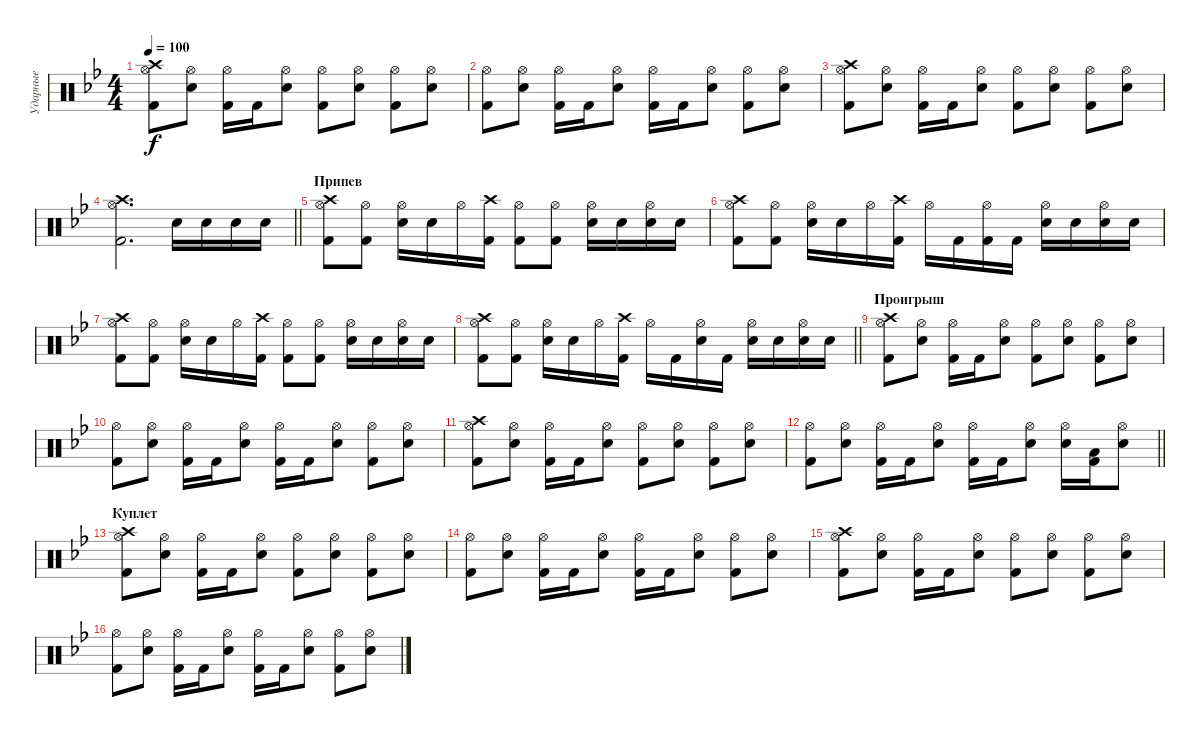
\track ("Ударные" "Ударные") {instrument percussion}
\staff {score}
\articulation defaults
\ts (4 4)
\tempo 100
\clef neutral
\ks gminor
("Crash high (hit)" "Hi-Hat (open)" "Kick (hit) 2").8{dy f} ("Hi-Hat (open)" "Electric Snare (hit)").8 ("Hi-Hat (open)" "Kick (hit) 2").16 "Kick (hit) 2".16 ("Hi-Hat (open)" "Electric Snare (hit)").8 ("Hi-Hat (open)" "Kick (hit) 2").8 ("Hi-Hat (open)" "Electric Snare (hit)").8 ("Hi-Hat (open)" "Kick (hit) 2").8 ("Hi-Hat (open)" "Electric Snare (hit)").8 |
("Hi-Hat (open)" "Kick (hit) 2").8 ("Hi-Hat (open)" "Electric Snare (hit)").8 ("Hi-Hat (open)" "Kick (hit) 2").16 "Kick (hit) 2".16 ("Hi-Hat (open)" "Electric Snare (hit)").8 ("Hi-Hat (open)" "Kick (hit) 2").16 "Kick (hit) 2".16 ("Hi-Hat (open)" "Electric Snare (hit)").8 ("Hi-Hat (open)" "Kick (hit) 2").8 ("Hi-Hat (open)" "Electric Snare (hit)").8 |
("Crash high (hit)" "Hi-Hat (open)" "Kick (hit) 2").8 ("Hi-Hat (open)" "Electric Snare (hit)").8 ("Hi-Hat (open)" "Kick (hit) 2").16 "Kick (hit) 2".16 ("Hi-Hat (open)" "Electric Snare (hit)").8 ("Hi-Hat (open)" "Kick (hit) 2").8 ("Hi-Hat (open)" "Electric Snare (hit)").8 ("Hi-Hat (open)" "Kick (hit) 2").8 ("Hi-Hat (open)" "Electric Snare (hit)").8 |
\barLineRight lightlight
("Crash high (hit)" "Hi-Hat (open)" "Kick (hit) 2").2{d} "Electric Snare (hit)".16 "Electric Snare (hit)".16 "Electric Snare (hit)".16 "Electric Snare (hit)".16 |
\section ("" "Припев")
("Crash high (hit)" "Hi-Hat (open)" "Kick (hit) 2").8 ("Hi-Hat (open)" "Kick (hit) 2").8 ("Hi-Hat (open)" "Electric Snare (hit)").16 "Electric Snare (hit)".16 "Hi-Hat (open)".16 ("Crash high (hit)" "Kick (hit) 2").16 ("Hi-Hat (open)" "Kick (hit) 2").8 ("Hi-Hat (open)" "Kick (hit) 2").8 ("Hi-Hat (open)" "Electric Snare (hit)").16 "Electric Snare (hit)".16 ("Hi-Hat (open)" "Electric Snare (hit)").16 "Electric Snare (hit)".16 |
("Crash high (hit)" "Hi-Hat (open)" "Kick (hit) 2").8 ("Hi-Hat (open)" "Kick (hit) 2").8 ("Hi-Hat (open)" "Electric Snare (hit)").16 "Electric Snare (hit)".16 "Hi-Hat (open)".16 ("Crash high (hit)" "Kick (hit) 2").16 "Hi-Hat (open)".16 "Kick (hit) 2".16 ("Hi-Hat (open)" "Kick (hit) 2").16 "Kick (hit) 2".16 ("Hi-Hat (open)" "Electric Snare (hit)").16 "Electric Snare (hit)".16 ("Hi-Hat (open)" "Electric Snare (hit)").16 "Electric Snare (hit)".16 |
("Crash high (hit)" "Hi-Hat (open)" "Kick (hit) 2").8 ("Hi-Hat (open)" "Kick (hit) 2").8 ("Hi-Hat (open)" "Electric Snare (hit)").16 "Electric Snare (hit)".16 "Hi-Hat (open)".16 ("Crash high (hit)" "Kick (hit) 2").16 ("Hi-Hat (open)" "Kick (hit) 2").8 ("Hi-Hat (open)" "Kick (hit) 2").8 ("Hi-Hat (open)" "Electric Snare (hit)").16 "Electric Snare (hit)".16 ("Hi-Hat (open)" "Electric Snare (hit)").16 "Electric Snare (hit)".16 |
\barLineRight lightlight
("Crash high (hit)" "Hi-Hat (open)" "Kick (hit) 2").8 ("Hi-Hat (open)" "Kick (hit) 2").8 ("Hi-Hat (open)" "Electric Snare (hit)").16 "Electric Snare (hit)".16 "Hi-Hat (open)".16 ("Crash high (hit)" "Kick (hit) 2").16 "Hi-Hat (open)".16 "Kick (hit) 2".16 ("Hi-Hat (open)" "Electric Snare (hit)").16 "Kick (hit) 2".16 ("Hi-Hat (open)" "Electric Snare (hit)").16 "Electric Snare (hit)".16 ("Hi-Hat (open)" "Electric Snare (hit)").16 "Electric Snare (hit)".16 |
\section ("" "Проигрыш")
("Crash high (hit)" "Hi-Hat (open)" "Kick (hit) 2").8 ("Hi-Hat (open)" "Electric Snare (hit)").8 ("Hi-Hat (open)" "Kick (hit) 2").16 "Kick (hit) 2".16 ("Hi-Hat (open)" "Electric Snare (hit)").8 ("Hi-Hat (open)" "Kick (hit) 2").8 ("Hi-Hat (open)" "Electric Snare (hit)").8 ("Hi-Hat (open)" "Kick (hit) 2").8 ("Hi-Hat (open)" "Electric Snare (hit)").8 |
("Hi-Hat (open)" "Kick (hit) 2").8 ("Hi-Hat (open)" "Electric Snare (hit)").8 ("Hi-Hat (open)" "Kick (hit) 2").16 "Kick (hit) 2".16 ("Hi-Hat (open)" "Electric Snare (hit)").8 ("Hi-Hat (open)" "Kick (hit) 2").16 "Kick (hit) 2".16 ("Hi-Hat (open)" "Electric Snare (hit)").8 ("Hi-Hat (open)" "Kick (hit) 2").8 ("Hi-Hat (open)" "Electric Snare (hit)").8 |
("Crash high (hit)" "Hi-Hat (open)" "Kick (hit) 2").8 ("Hi-Hat (open)" "Electric Snare (hit)").8 ("Hi-Hat (open)" "Kick (hit) 2").16 "Kick (hit) 2".16 ("Hi-Hat (open)" "Electric Snare (hit)").8 ("Hi-Hat (open)" "Kick (hit) 2").8 ("Hi-Hat (open)" "Electric Snare (hit)").8 ("Hi-Hat (open)" "Kick (hit) 2").8 ("Hi-Hat (open)" "Electric Snare (hit)").8 |
\barLineRight lightlight
("Hi-Hat (open)" "Kick (hit) 2").8 ("Hi-Hat (open)" "Electric Snare (hit)").8 ("Hi-Hat (open)" "Kick (hit) 2").16 "Kick (hit) 2".16 ("Hi-Hat (open)" "Electric Snare (hit)").8 ("Hi-Hat (open)" "Kick (hit) 2").16 "Kick (hit) 2".16 ("Hi-Hat (open)" "Electric Snare (hit)").8 ("Hi-Hat (open)" "Electric Snare (hit)").16 ("Low Tom (hit)" "Kick (hit) 2").16 ("Hi-Hat (open)" "Electric Snare (hit)").8 |
\section ("" "Куплет")
("Crash high (hit)" "Hi-Hat (open)" "Kick (hit) 2").8 ("Hi-Hat (open)" "Electric Snare (hit)").8 ("Hi-Hat (open)" "Kick (hit) 2").16 "Kick (hit) 2".16 ("Hi-Hat (open)" "Electric Snare (hit)").8 ("Hi-Hat (open)" "Kick (hit) 2").8 ("Hi-Hat (open)" "Electric Snare (hit)").8 ("Hi-Hat (open)" "Kick (hit) 2").8 ("Hi-Hat (open)" "Electric Snare (hit)").8 |
("Hi-Hat (open)" "Kick (hit) 2").8 ("Hi-Hat (open)" "Electric Snare (hit)").8 ("Hi-Hat (open)" "Kick (hit) 2").16 "Kick (hit) 2".16 ("Hi-Hat (open)" "Electric Snare (hit)").8 ("Hi-Hat (open)" "Kick (hit) 2").16 "Kick (hit) 2".16 ("Hi-Hat (open)" "Electric Snare (hit)").8 ("Hi-Hat (open)" "Kick (hit) 2").8 ("Hi-Hat (open)" "Electric Snare (hit)").8 |
("Crash high (hit)" "Hi-Hat (open)" "Kick (hit) 2").8 ("Hi-Hat (open)" "Electric Snare (hit)").8 ("Hi-Hat (open)" "Kick (hit) 2").16 "Kick (hit) 2".16 ("Hi-Hat (open)" "Electric Snare (hit)").8 ("Hi-Hat (open)" "Kick (hit) 2").8 ("Hi-Hat (open)" "Electric Snare (hit)").8 ("Hi-Hat (open)" "Kick (hit) 2").8 ("Hi-Hat (open)" "Electric Snare (hit)").8 |
("Hi-Hat (open)" "Kick (hit) 2").8 ("Hi-Hat (open)" "Electric Snare (hit)").8 ("Hi-Hat (open)" "Kick (hit) 2").16 "Kick (hit) 2".16 ("Hi-Hat (open)" "Electric Snare (hit)").8 ("Hi-Hat (open)" "Kick (hit) 2").16 "Kick (hit) 2".16 ("Hi-Hat (open)" "Electric Snare (hit)").8 ("Hi-Hat (open)" "Kick (hit) 2").8 ("Hi-Hat (open)" "Electric Snare (hit)").8
